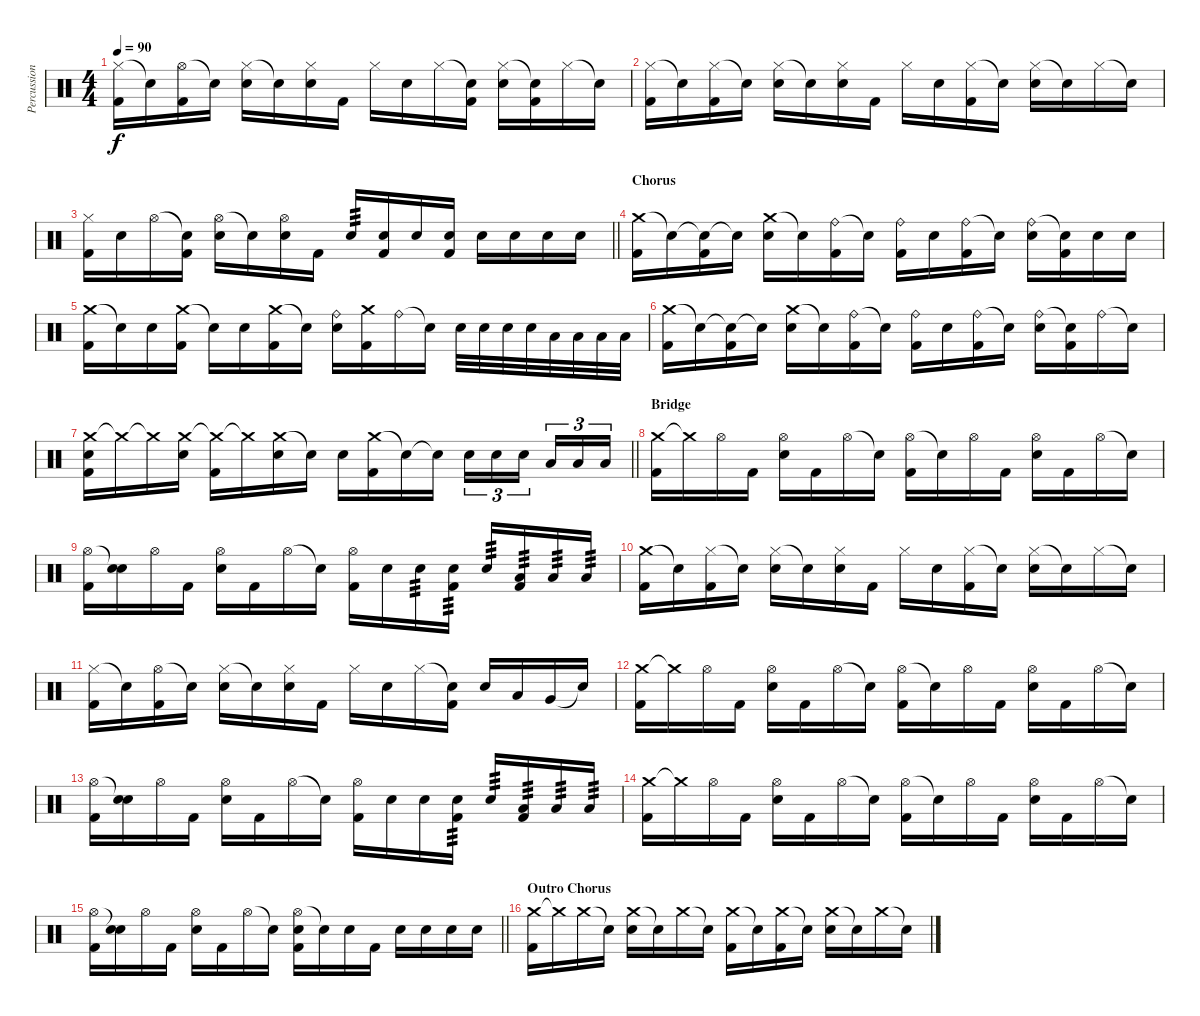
\track ("Percussion" "Percussion") {instrument percussion}
\staff {score}
\articulation defaults
\ts (4 4)
\tempo 90
\clef neutral
\ks c
("Hi-Hat (closed)" "Kick (hit) 2").16{dy f} "Snare (hit)"{t}.16 ("Hi-Hat (open)" "Kick (hit) 2").16 "Snare (hit)"{t}.16 ("Hi-Hat (closed)" "Snare (hit) 2").16 "Snare (hit)"{t}.16 ("Hi-Hat (closed)" "Snare (hit) 2").16 "Kick (hit) 2".16 "Hi-Hat (closed)".16 "Snare (hit) 2".16 "Hi-Hat (closed)".16 ("Snare (hit)"{t} "Kick (hit) 2").16 ("Hi-Hat (closed)" "Snare (hit) 2").16 ("Snare (hit)"{t} "Kick (hit) 2").16 "Hi-Hat (closed)".16 "Snare (hit)"{t}.16 |
("Hi-Hat (closed)" "Kick (hit) 2").16 "Snare (hit)"{t}.16 ("Hi-Hat (closed)" "Kick (hit) 2").16 "Snare (hit)"{t}.16 ("Hi-Hat (closed)" "Snare (hit) 2").16 "Snare (hit)"{t}.16 ("Hi-Hat (closed)" "Snare (hit) 2").16 "Kick (hit) 2".16 "Hi-Hat (closed)".16 "Snare (hit) 2".16 ("Hi-Hat (closed)" "Kick (hit) 2").16 "Snare (hit)"{t}.16 ("Hi-Hat (closed)" "Snare (hit) 2").16 "Snare (hit)"{t}.16 "Hi-Hat (closed)".16 "Snare (hit)"{t}.16 |
\barLineRight lightlight
("Hi-Hat (closed)" "Kick (hit) 2").16 "Snare (hit) 2".16 "Hi-Hat (open)".16 ("Snare (hit)"{t} "Kick (hit) 2").16 ("Hi-Hat (open)" "Snare (hit) 2").16 "Snare (hit)"{t}.16 ("Hi-Hat (open)" "Snare (hit) 2").16 "Kick (hit) 2".16 "Snare (hit) 2".16{tp 3} ("Snare (hit) 2" "Kick (hit) 2").16 "Snare (hit) 2".16 ("Snare (hit) 2" "Kick (hit) 2").16 "Snare (hit) 2".16 "Snare (hit) 2".16 "Snare (hit) 2".16 "Snare (hit) 2".16 |
\section ("" "Chorus")
("Crash medium (hit)" "Kick (hit) 2").16 "Snare (hit)"{t}.16 ("Snare (hit)"{t} "Kick (hit) 2").16 "Snare (hit)"{t}.16 ("Crash medium (hit)" "Snare (hit) 2").16 "Snare (hit)"{t}.16 ("Ride (bell)" "Kick (hit) 2").16 "Snare (hit)"{t}.16 ("Ride (bell)" "Kick (hit) 2").16 "Snare (hit) 2".16 ("Ride (bell)" "Kick (hit) 2").16 "Snare (hit)"{t}.16 ("Ride (bell)" "Snare (hit) 2").16 ("Snare (hit)"{t} "Kick (hit) 2").16 "Snare (hit) 2".16 "Snare (hit) 2".16 |
("Crash medium (hit)" "Kick (hit) 2").16 "Snare (hit)"{t}.16 "Snare (hit) 2".16 ("Crash medium (hit)" "Kick (hit) 2").16 "Snare (hit)"{t}.16 "Snare (hit) 2".16 ("Crash medium (hit)" "Kick (hit) 2").16 "Snare (hit)"{t}.16 ("Ride (bell)" "Snare (hit) 2").16 ("Crash medium (hit)" "Kick (hit) 2").16 "Ride (bell)".16 "Snare (hit)"{t}.16 "Snare (hit) 2".32 "Snare (hit) 2".32 "Snare (hit) 2".32 "Snare (hit) 2".32 "Low Tom (hit)".32 "Low Tom (hit)".32 "Low Tom (hit)".32 "Low Tom (hit)".32 |
("Crash medium (hit)" "Kick (hit) 2").16 "Snare (hit)"{t}.16 ("Snare (hit)"{t} "Kick (hit) 2").16 "Snare (hit)"{t}.16 ("Crash medium (hit)" "Snare (hit) 2").16 "Snare (hit)"{t}.16 ("Ride (bell)" "Kick (hit) 2").16 "Snare (hit)"{t}.16 ("Ride (bell)" "Kick (hit) 2").16 "Snare (hit) 2".16 ("Ride (bell)" "Kick (hit) 2").16 "Snare (hit)"{t}.16 ("Ride (bell)" "Snare (hit) 2").16 ("Snare (hit)"{t} "Kick (hit) 2").16 "Ride (bell)".16 "Snare (hit)"{t}.16 |
\barLineRight lightlight
("Crash medium (hit)" "Snare (hit) 2" "Kick (hit) 2").16 "Crash medium (hit)"{t}.16 "Crash medium (hit)"{t}.16 ("Crash medium (hit)" "Snare (hit) 2").16 ("Crash medium (hit)"{t} "Kick (hit) 2").16 "Crash medium (hit)"{t}.16 ("Crash medium (hit)" "Snare (hit) 2").16 "Snare (hit)"{t}.16 "Snare (hit) 2".16 ("Crash medium (hit)" "Kick (hit) 2").16 "Snare (hit)"{t}.16 "Snare (hit)"{t}.16 "Snare (hit) 2".16{tu (3 2)} "Snare (hit) 2".16{tu (3 2)} "Snare (hit) 2".16{tu (3 2) beam splitsecondary} "Low Tom (hit)".16{tu (3 2)} "Low Tom (hit)".16{tu (3 2)} "Low Tom (hit)".16{tu (3 2)} |
\section ("" "Bridge")
("Crash medium (hit)" "Kick (hit) 2").16 "Crash medium (hit)"{t}.16 "Hi-Hat (open)".16 "Kick (hit) 2".16 ("Hi-Hat (open)" "Snare (hit) 2").16 "Kick (hit) 2".16 "Hi-Hat (open)".16 "Snare (hit)"{t}.16 ("Hi-Hat (open)" "Kick (hit) 2").16 "Snare (hit)"{t}.16 "Hi-Hat (open)".16 "Kick (hit) 2".16 ("Hi-Hat (open)" "Snare (hit) 2").16 "Kick (hit) 2".16 "Hi-Hat (open)".16 "Snare (hit)"{t}.16 |
("Hi-Hat (open)" "Kick (hit) 2").16 ("Snare (hit)"{t} "Snare (hit) 2").16 "Hi-Hat (open)".16 "Kick (hit) 2".16 ("Hi-Hat (open)" "Snare (hit) 2").16 "Kick (hit) 2".16 "Hi-Hat (open)".16 "Snare (hit)"{t}.16 ("Hi-Hat (open)" "Kick (hit) 2").16 "Snare (hit) 2".16 "Snare (hit) 2".16{tp 3} ("Snare (hit) 2" "Kick (hit) 2").16{tp 3} "Snare (hit) 2".16{tp 3} ("Low Tom (hit)" "Kick (hit) 2").16{tp 3} "Low Tom (hit)".16{tp 3} "Low Tom (hit)".16{tp 3} |
("Crash medium (hit)" "Kick (hit) 2").16 "Snare (hit)"{t}.16 ("Hi-Hat (closed)" "Kick (hit) 2").16 "Snare (hit)"{t}.16 ("Hi-Hat (closed)" "Snare (hit) 2").16 "Snare (hit)"{t}.16 ("Hi-Hat (closed)" "Snare (hit) 2").16 "Kick (hit) 2".16 "Hi-Hat (closed)".16 "Snare (hit) 2".16 ("Hi-Hat (closed)" "Kick (hit) 2").16 "Snare (hit)"{t}.16 ("Hi-Hat (closed)" "Snare (hit) 2").16 "Snare (hit)"{t}.16 "Hi-Hat (closed)".16 "Snare (hit)"{t}.16 |
("Hi-Hat (closed)" "Kick (hit) 2").16 "Snare (hit)"{t}.16 ("Hi-Hat (open)" "Kick (hit) 2").16 "Snare (hit)"{t}.16 ("Hi-Hat (closed)" "Snare (hit) 2").16 "Snare (hit)"{t}.16 ("Hi-Hat (closed)" "Snare (hit) 2").16 "Kick (hit) 2".16 "Hi-Hat (closed)".16 "Snare (hit) 2".16 "Hi-Hat (closed)".16 ("Snare (hit)"{t} "Kick (hit) 2").16 "Snare (hit) 2".16 "Low Tom (hit)".16 "Very Low Tom (hit)".16 "Snare (hit)"{t}.16 |
("Crash medium (hit)" "Kick (hit) 2").16 "Crash medium (hit)"{t}.16 "Hi-Hat (open)".16 "Kick (hit) 2".16 ("Hi-Hat (open)" "Snare (hit) 2").16 "Kick (hit) 2".16 "Hi-Hat (open)".16 "Snare (hit)"{t}.16 ("Hi-Hat (open)" "Kick (hit) 2").16 "Snare (hit)"{t}.16 "Hi-Hat (open)".16 "Kick (hit) 2".16 ("Hi-Hat (open)" "Snare (hit) 2").16 "Kick (hit) 2".16 "Hi-Hat (open)".16 "Snare (hit)"{t}.16 |
("Hi-Hat (open)" "Kick (hit) 2").16 ("Snare (hit)"{t} "Snare (hit) 2").16 "Hi-Hat (open)".16 "Kick (hit) 2".16 ("Hi-Hat (open)" "Snare (hit) 2").16 "Kick (hit) 2".16 "Hi-Hat (open)".16 "Snare (hit)"{t}.16 ("Hi-Hat (open)" "Kick (hit) 2").16 "Snare (hit) 2".16 "Snare (hit) 2".16 ("Snare (hit) 2" "Kick (hit) 2").16{tp 3} "Snare (hit) 2".16{tp 3} ("Low Tom (hit)" "Kick (hit) 2").16{tp 3} "Low Tom (hit)".16{tp 3} "Low Tom (hit)".16{tp 3} |
("Crash medium (hit)" "Kick (hit) 2").16 "Crash medium (hit)"{t}.16 "Hi-Hat (open)".16 "Kick (hit) 2".16 ("Hi-Hat (open)" "Snare (hit) 2").16 "Kick (hit) 2".16 "Hi-Hat (open)".16 "Snare (hit)"{t}.16 ("Hi-Hat (open)" "Kick (hit) 2").16 "Snare (hit)"{t}.16 "Hi-Hat (open)".16 "Kick (hit) 2".16 ("Hi-Hat (open)" "Snare (hit) 2").16 "Kick (hit) 2".16 "Hi-Hat (open)".16 "Snare (hit)"{t}.16 |
\barLineRight lightlight
("Hi-Hat (open)" "Kick (hit) 2").16 ("Snare (hit)"{t} "Snare (hit) 2").16 "Hi-Hat (open)".16 "Kick (hit) 2".16 ("Hi-Hat (open)" "Snare (hit) 2").16 "Kick (hit) 2".16 "Hi-Hat (open)".16 "Snare (hit)"{t}.16 ("Hi-Hat (open)" "Snare (hit) 2" "Kick (hit) 2").16 "Snare (hit)"{t}.16 "Snare (hit) 2".16 "Kick (hit) 2".16 "Snare (hit) 2".16 "Snare (hit) 2".16 "Snare (hit) 2".16 "Snare (hit) 2".16 |
\section ("" "Outro Chorus")
("Crash medium (hit)" "Kick (hit) 2").16 "Crash medium (hit)"{t}.16 "Crash medium (hit)".16 "Snare (hit)"{t}.16 ("Crash medium (hit)" "Snare (hit) 2").16 "Snare (hit)"{t}.16 "Crash medium (hit)".16 "Snare (hit)"{t}.16 ("Crash medium (hit)" "Kick (hit) 2").16 "Snare (hit)"{t}.16 ("Crash medium (hit)" "Kick (hit) 2").16 "Snare (hit)"{t}.16 ("Crash medium (hit)" "Snare (hit) 2").16 "Snare (hit)"{t}.16 "Crash medium (hit)".16 "Snare (hit)"{t}.16
